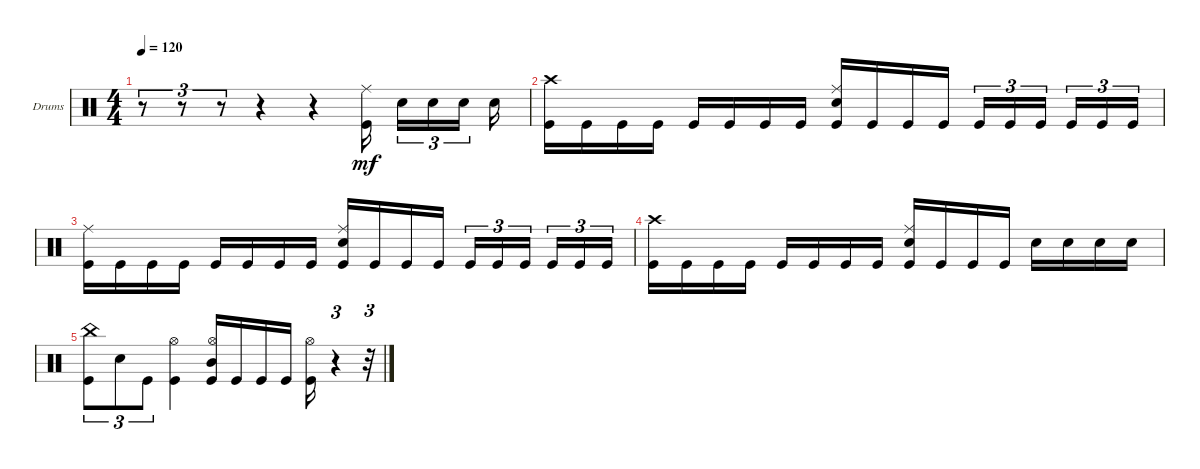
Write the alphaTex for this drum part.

\defaultSystemsLayout 4
\bracketExtendMode groupsimilarinstruments
\firstSystemTrackNameOrientation horizontal
\otherSystemsTrackNameOrientation horizontal
\track ("Drumkit" "Drums") {instrument percussion}
\staff {score}
\articulation defaults
\ts (4 4)
\tempo 120
\clef neutral
\ks c
r.8{tu (3 2) dy mf} r.8{tu (3 2)} r.8{tu (3 2)} r.4 r.4 ("Kick (hit)" "Ride (middle)").16 "Snare (hit) 2".16{tu (3 2)} "Snare (hit) 2".16{tu (3 2)} "Snare (hit) 2".16{tu (3 2)} "Snare (hit) 2".16 |
("Crash high (hit)" "Kick (hit)").16 "Kick (hit)".16 "Kick (hit)".16 "Kick (hit)".16 "Kick (hit)".16 "Kick (hit)".16 "Kick (hit)".16 "Kick (hit)".16 ("Kick (hit)" "Snare (hit) 2" "Ride (middle)").16 "Kick (hit)".16 "Kick (hit)".16 "Kick (hit)".16 "Kick (hit)".16{tu (3 2)} "Kick (hit)".16{tu (3 2)} "Kick (hit)".16{tu (3 2)} "Kick (hit)".16{tu (3 2)} "Kick (hit)".16{tu (3 2)} "Kick (hit)".16{tu (3 2)} |
("Kick (hit)" "Ride (middle)").16 "Kick (hit)".16 "Kick (hit)".16 "Kick (hit)".16 "Kick (hit)".16 "Kick (hit)".16 "Kick (hit)".16 "Kick (hit)".16 ("Kick (hit)" "Snare (hit) 2" "Ride (middle)").16 "Kick (hit)".16 "Kick (hit)".16 "Kick (hit)".16 "Kick (hit)".16{tu (3 2)} "Kick (hit)".16{tu (3 2)} "Kick (hit)".16{tu (3 2)} "Kick (hit)".16{tu (3 2)} "Kick (hit)".16{tu (3 2)} "Kick (hit)".16{tu (3 2)} |
("Crash high (hit)" "Kick (hit)").16 "Kick (hit)".16 "Kick (hit)".16 "Kick (hit)".16 "Kick (hit)".16 "Kick (hit)".16 "Kick (hit)".16 "Kick (hit)".16 ("Kick (hit)" "Snare (hit) 2" "Ride (middle)").16 "Kick (hit)".16 "Kick (hit)".16 "Kick (hit)".16 "Snare (hit) 2".16 "Snare (hit) 2".16 "Snare (hit) 2".16 "Snare (hit) 2".16 |
("Kick (hit)" "China (hit)").8{tu (3 2)} "Snare (hit) 2".8{tu (3 2)} "Kick (hit)".8{tu (3 2)} ("Kick (hit)" "Hi-Hat (open)").4 ("Mid Tom (hit)" "Hi-Hat (open)" "Kick (hit)").16 "Kick (hit)".16 "Kick (hit)".16 "Kick (hit)".16 ("Kick (hit)" "Hi-Hat (open)").16 r.4{tu (3 2)} r.32{tu (3 2)}
